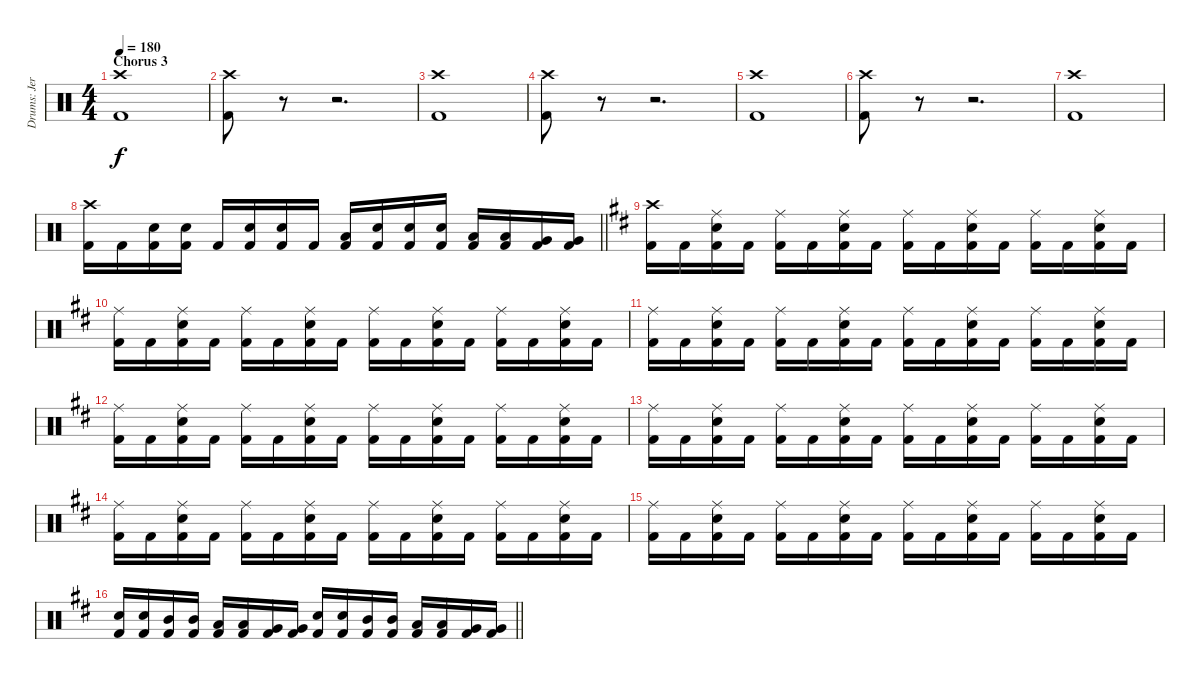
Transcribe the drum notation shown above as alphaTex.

\track ("Drums: Jere Luokkamäki" "Drums: Jer") {instrument percussion}
\staff {score}
\articulation defaults
\ts (4 4)
\section ("" "Chorus 3")
\tempo 180
\clef neutral
\ks aminor
("Crash high (hit)" "Kick (hit) 2").1{dy f} |
("Crash high (hit)" "Kick (hit) 2").8 r.8 r.2{d} |
("Crash high (hit)" "Kick (hit) 2").1 |
("Crash high (hit)" "Kick (hit) 2").8 r.8 r.2{d} |
("Crash high (hit)" "Kick (hit) 2").1 |
("Crash high (hit)" "Kick (hit) 2").8 r.8 r.2{d} |
("Crash high (hit)" "Kick (hit) 2").1 |
\barLineRight lightlight
("Crash high (hit)" "Kick (hit) 2").16 "Kick (hit) 2".16 ("Electric Snare (hit)" "Kick (hit) 2").16 ("Electric Snare (hit)" "Kick (hit) 2").16 "Kick (hit) 2".16 ("Electric Snare (hit)" "Kick (hit) 2").16 ("Electric Snare (hit)" "Kick (hit) 2").16 "Kick (hit) 2".16 ("Low Tom (hit)" "Kick (hit) 2").16 ("Electric Snare (hit)" "Kick (hit) 2").16 ("Electric Snare (hit)" "Kick (hit) 2").16 ("Electric Snare (hit)" "Kick (hit) 2").16 ("Low Tom (hit)" "Kick (hit) 2").16 ("Low Tom (hit)" "Kick (hit) 2").16 ("Very Low Tom (hit)" "Kick (hit) 2").16 ("Very Low Tom (hit)" "Kick (hit) 2").16 |
\section ("" "")
\ks bminor
("Crash high (hit)" "Kick (hit) 2").16 "Kick (hit) 2".16 ("Ride (middle)" "Electric Snare (hit)" "Kick (hit) 2").16 "Kick (hit) 2".16 ("Ride (middle)" "Kick (hit) 2").16 "Kick (hit) 2".16 ("Ride (middle)" "Electric Snare (hit)" "Kick (hit) 2").16 "Kick (hit) 2".16 ("Ride (middle)" "Kick (hit) 2").16 "Kick (hit) 2".16 ("Ride (middle)" "Electric Snare (hit)" "Kick (hit) 2").16 "Kick (hit) 2".16 ("Ride (middle)" "Kick (hit) 2").16 "Kick (hit) 2".16 ("Ride (middle)" "Electric Snare (hit)" "Kick (hit) 2").16 "Kick (hit) 2".16 |
("Ride (middle)" "Kick (hit) 2").16 "Kick (hit) 2".16 ("Ride (middle)" "Electric Snare (hit)" "Kick (hit) 2").16 "Kick (hit) 2".16 ("Ride (middle)" "Kick (hit) 2").16 "Kick (hit) 2".16 ("Ride (middle)" "Electric Snare (hit)" "Kick (hit) 2").16 "Kick (hit) 2".16 ("Ride (middle)" "Kick (hit) 2").16 "Kick (hit) 2".16 ("Ride (middle)" "Electric Snare (hit)" "Kick (hit) 2").16 "Kick (hit) 2".16 ("Ride (middle)" "Kick (hit) 2").16 "Kick (hit) 2".16 ("Ride (middle)" "Electric Snare (hit)" "Kick (hit) 2").16 "Kick (hit) 2".16 |
("Ride (middle)" "Kick (hit) 2").16 "Kick (hit) 2".16 ("Ride (middle)" "Electric Snare (hit)" "Kick (hit) 2").16 "Kick (hit) 2".16 ("Ride (middle)" "Kick (hit) 2").16 "Kick (hit) 2".16 ("Ride (middle)" "Electric Snare (hit)" "Kick (hit) 2").16 "Kick (hit) 2".16 ("Ride (middle)" "Kick (hit) 2").16 "Kick (hit) 2".16 ("Ride (middle)" "Electric Snare (hit)" "Kick (hit) 2").16 "Kick (hit) 2".16 ("Ride (middle)" "Kick (hit) 2").16 "Kick (hit) 2".16 ("Ride (middle)" "Electric Snare (hit)" "Kick (hit) 2").16 "Kick (hit) 2".16 |
("Ride (middle)" "Kick (hit) 2").16 "Kick (hit) 2".16 ("Ride (middle)" "Electric Snare (hit)" "Kick (hit) 2").16 "Kick (hit) 2".16 ("Ride (middle)" "Kick (hit) 2").16 "Kick (hit) 2".16 ("Ride (middle)" "Electric Snare (hit)" "Kick (hit) 2").16 "Kick (hit) 2".16 ("Ride (middle)" "Kick (hit) 2").16 "Kick (hit) 2".16 ("Ride (middle)" "Electric Snare (hit)" "Kick (hit) 2").16 "Kick (hit) 2".16 ("Ride (middle)" "Kick (hit) 2").16 "Kick (hit) 2".16 ("Ride (middle)" "Electric Snare (hit)" "Kick (hit) 2").16 "Kick (hit) 2".16 |
("Ride (middle)" "Kick (hit) 2").16 "Kick (hit) 2".16 ("Ride (middle)" "Electric Snare (hit)" "Kick (hit) 2").16 "Kick (hit) 2".16 ("Ride (middle)" "Kick (hit) 2").16 "Kick (hit) 2".16 ("Ride (middle)" "Electric Snare (hit)" "Kick (hit) 2").16 "Kick (hit) 2".16 ("Ride (middle)" "Kick (hit) 2").16 "Kick (hit) 2".16 ("Ride (middle)" "Electric Snare (hit)" "Kick (hit) 2").16 "Kick (hit) 2".16 ("Ride (middle)" "Kick (hit) 2").16 "Kick (hit) 2".16 ("Ride (middle)" "Electric Snare (hit)" "Kick (hit) 2").16 "Kick (hit) 2".16 |
("Ride (middle)" "Kick (hit) 2").16 "Kick (hit) 2".16 ("Ride (middle)" "Electric Snare (hit)" "Kick (hit) 2").16 "Kick (hit) 2".16 ("Ride (middle)" "Kick (hit) 2").16 "Kick (hit) 2".16 ("Ride (middle)" "Electric Snare (hit)" "Kick (hit) 2").16 "Kick (hit) 2".16 ("Ride (middle)" "Kick (hit) 2").16 "Kick (hit) 2".16 ("Ride (middle)" "Electric Snare (hit)" "Kick (hit) 2").16 "Kick (hit) 2".16 ("Ride (middle)" "Kick (hit) 2").16 "Kick (hit) 2".16 ("Ride (middle)" "Electric Snare (hit)" "Kick (hit) 2").16 "Kick (hit) 2".16 |
("Ride (middle)" "Kick (hit) 2").16 "Kick (hit) 2".16 ("Ride (middle)" "Electric Snare (hit)" "Kick (hit) 2").16 "Kick (hit) 2".16 ("Ride (middle)" "Kick (hit) 2").16 "Kick (hit) 2".16 ("Ride (middle)" "Electric Snare (hit)" "Kick (hit) 2").16 "Kick (hit) 2".16 ("Ride (middle)" "Kick (hit) 2").16 "Kick (hit) 2".16 ("Ride (middle)" "Electric Snare (hit)" "Kick (hit) 2").16 "Kick (hit) 2".16 ("Ride (middle)" "Kick (hit) 2").16 "Kick (hit) 2".16 ("Ride (middle)" "Electric Snare (hit)" "Kick (hit) 2").16 "Kick (hit) 2".16 |
\barLineRight lightlight
("Electric Snare (hit)" "Kick (hit) 2").16 ("Electric Snare (hit)" "Kick (hit) 2").16 ("Mid Tom (hit)" "Kick (hit) 2").16 ("Mid Tom (hit)" "Kick (hit) 2").16 ("Low Tom (hit)" "Kick (hit) 2").16 ("Low Tom (hit)" "Kick (hit) 2").16 ("Very Low Tom (hit)" "Kick (hit) 2").16 ("Very Low Tom (hit)" "Kick (hit) 2").16 ("Electric Snare (hit)" "Kick (hit) 2").16 ("Electric Snare (hit)" "Kick (hit) 2").16 ("Mid Tom (hit)" "Kick (hit) 2").16 ("Mid Tom (hit)" "Kick (hit) 2").16 ("Low Tom (hit)" "Kick (hit) 2").16 ("Low Tom (hit)" "Kick (hit) 2").16 ("Very Low Tom (hit)" "Kick (hit) 2").16 ("Very Low Tom (hit)" "Kick (hit) 2").16
